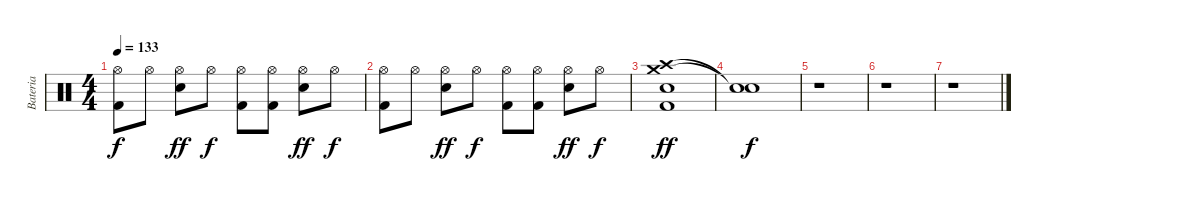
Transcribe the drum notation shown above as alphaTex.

\track ("Bateria" "Bateria") {instrument percussion}
\staff {score}
\articulation defaults
\ts (4 4)
\tempo 133
\clef neutral
\ks c
("Hi-Hat (open)" "Kick (hit) 2").8{dy f} "Hi-Hat (open)".8 ("Hi-Hat (open)" "Snare (hit) 2").8{dy ff} "Hi-Hat (open)".8{dy f} ("Hi-Hat (open)" "Kick (hit) 2").8 ("Hi-Hat (open)" "Kick (hit) 2").8 ("Hi-Hat (open)" "Snare (hit) 2").8{dy ff} "Hi-Hat (open)".8{dy f} |
("Hi-Hat (open)" "Kick (hit) 2").8 "Hi-Hat (open)".8 ("Hi-Hat (open)" "Snare (hit) 2").8{dy ff} "Hi-Hat (open)".8{dy f} ("Hi-Hat (open)" "Kick (hit) 2").8 ("Hi-Hat (open)" "Kick (hit) 2").8 ("Hi-Hat (open)" "Snare (hit) 2").8{dy ff} "Hi-Hat (open)".8{dy f} |
("Crash medium (hit)" "Crash high (hit)" "Snare (hit) 2" "Kick (hit) 2").1{dy ff} |
("Snare (hit)"{t} "Snare (hit)"{t}).1{dy f} |
r.1 |
r.1 |
r.1
